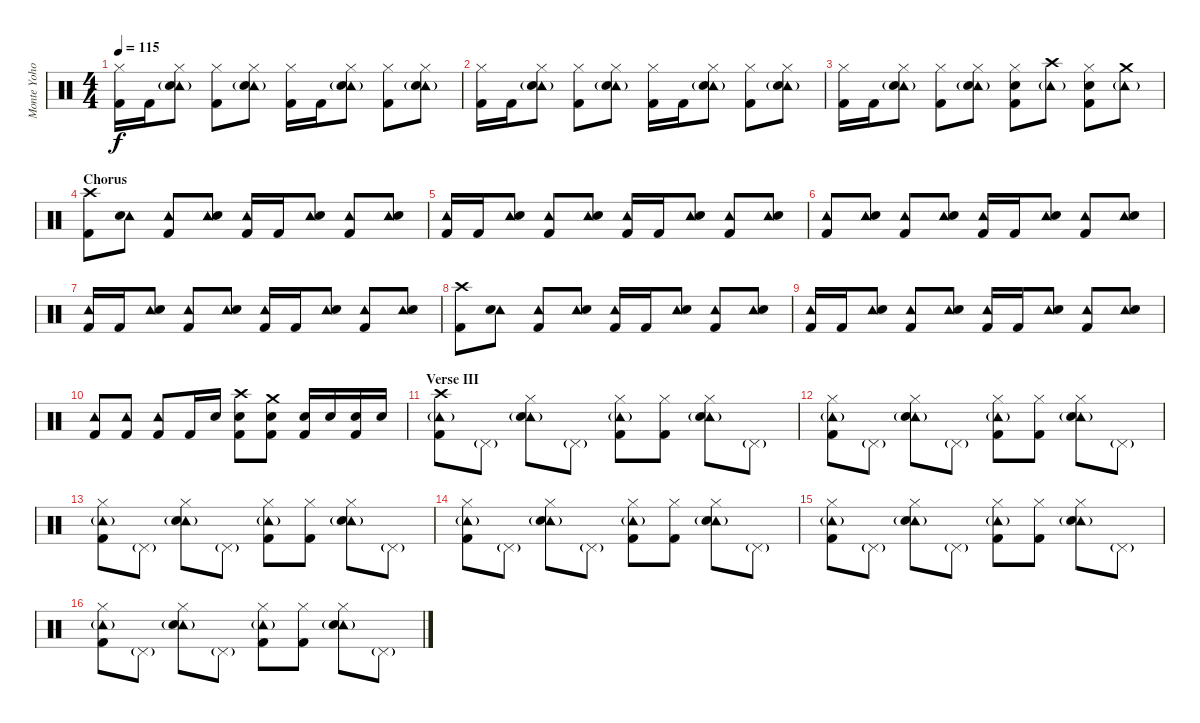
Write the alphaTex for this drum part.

\track ("Monte Yoho - Drums" "Monte Yoho") {instrument percussion}
\staff {score}
\articulation defaults
\ts (4 4)
\tempo 115
\clef neutral
\ks c
("Hi-Hat (closed)" "Kick (hit) 2").16{dy f} "Kick (hit) 2".16 ("Hi-Hat (closed)" "Tambourine (hit)"{g} "Snare (hit) 2").8 ("Hi-Hat (closed)" "Kick (hit) 2").8 ("Hi-Hat (closed)" "Tambourine (hit)"{g} "Snare (hit) 2").8 ("Hi-Hat (closed)" "Kick (hit) 2").16 "Kick (hit) 2".16 ("Hi-Hat (closed)" "Tambourine (hit)"{g} "Snare (hit) 2").8 ("Hi-Hat (closed)" "Kick (hit) 2").8 ("Hi-Hat (closed)" "Tambourine (hit)"{g} "Snare (hit) 2").8 |
("Hi-Hat (closed)" "Kick (hit) 2").16 "Kick (hit) 2".16 ("Hi-Hat (closed)" "Tambourine (hit)"{g} "Snare (hit) 2").8 ("Hi-Hat (closed)" "Kick (hit) 2").8 ("Hi-Hat (closed)" "Tambourine (hit)"{g} "Snare (hit) 2").8 ("Hi-Hat (closed)" "Kick (hit) 2").16 "Kick (hit) 2".16 ("Hi-Hat (closed)" "Tambourine (hit)"{g} "Snare (hit) 2").8 ("Hi-Hat (closed)" "Kick (hit) 2").8 ("Hi-Hat (closed)" "Tambourine (hit)"{g} "Snare (hit) 2").8 |
("Hi-Hat (closed)" "Kick (hit) 2").16 "Kick (hit) 2".16 ("Hi-Hat (closed)" "Tambourine (hit)"{g} "Snare (hit) 2").8 ("Hi-Hat (closed)" "Kick (hit) 2").8 ("Hi-Hat (closed)" "Tambourine (hit)"{g} "Snare (hit) 2").8 ("Hi-Hat (closed)" "Snare (hit) 2" "Kick (hit) 2").8 ("Crash high (hit)" "Tambourine (hit)"{g}).8 ("Hi-Hat (closed)" "Snare (hit) 2" "Kick (hit) 2").8 ("Crash medium (hit)" "Tambourine (hit)"{g}).8 |
\section ("" "Chorus")
("Crash high (hit)" "Kick (hit) 2").8 ("Tambourine (hit)" "Snare (hit) 2").8 ("Tambourine (hit)" "Kick (hit) 2").8 ("Tambourine (hit)" "Snare (hit) 2").8 ("Tambourine (hit)" "Kick (hit) 2").16 "Kick (hit) 2".16 ("Tambourine (hit)" "Snare (hit) 2").8 ("Tambourine (hit)" "Kick (hit) 2").8 ("Tambourine (hit)" "Snare (hit) 2").8 |
("Tambourine (hit)" "Kick (hit) 2").16 "Kick (hit) 2".16 ("Tambourine (hit)" "Snare (hit) 2").8 ("Tambourine (hit)" "Kick (hit) 2").8 ("Tambourine (hit)" "Snare (hit) 2").8 ("Tambourine (hit)" "Kick (hit) 2").16 "Kick (hit) 2".16 ("Tambourine (hit)" "Snare (hit) 2").8 ("Tambourine (hit)" "Kick (hit) 2").8 ("Tambourine (hit)" "Snare (hit) 2").8 |
("Tambourine (hit)" "Kick (hit) 2").8 ("Tambourine (hit)" "Snare (hit) 2").8 ("Tambourine (hit)" "Kick (hit) 2").8 ("Tambourine (hit)" "Snare (hit) 2").8 ("Tambourine (hit)" "Kick (hit) 2").16 "Kick (hit) 2".16 ("Tambourine (hit)" "Snare (hit) 2").8 ("Tambourine (hit)" "Kick (hit) 2").8 ("Tambourine (hit)" "Snare (hit) 2").8 |
("Tambourine (hit)" "Kick (hit) 2").16 "Kick (hit) 2".16 ("Tambourine (hit)" "Snare (hit) 2").8 ("Tambourine (hit)" "Kick (hit) 2").8 ("Tambourine (hit)" "Snare (hit) 2").8 ("Tambourine (hit)" "Kick (hit) 2").16 "Kick (hit) 2".16 ("Tambourine (hit)" "Snare (hit) 2").8 ("Tambourine (hit)" "Kick (hit) 2").8 ("Tambourine (hit)" "Snare (hit) 2").8 |
("Crash high (hit)" "Kick (hit) 2").8 ("Tambourine (hit)" "Snare (hit) 2").8 ("Tambourine (hit)" "Kick (hit) 2").8 ("Tambourine (hit)" "Snare (hit) 2").8 ("Tambourine (hit)" "Kick (hit) 2").16 "Kick (hit) 2".16 ("Tambourine (hit)" "Snare (hit) 2").8 ("Tambourine (hit)" "Kick (hit) 2").8 ("Tambourine (hit)" "Snare (hit) 2").8 |
("Tambourine (hit)" "Kick (hit) 2").16 "Kick (hit) 2".16 ("Tambourine (hit)" "Snare (hit) 2").8 ("Tambourine (hit)" "Kick (hit) 2").8 ("Tambourine (hit)" "Snare (hit) 2").8 ("Tambourine (hit)" "Kick (hit) 2").16 "Kick (hit) 2".16 ("Tambourine (hit)" "Snare (hit) 2").8 ("Tambourine (hit)" "Kick (hit) 2").8 ("Tambourine (hit)" "Snare (hit) 2").8 |
("Tambourine (hit)" "Kick (hit) 2").8 ("Tambourine (hit)" "Kick (hit) 2").8 ("Tambourine (hit)" "Kick (hit) 2").8 "Kick (hit) 2".16 "Snare (hit) 2".16 ("Crash high (hit)" "Snare (hit) 2" "Kick (hit) 2").8 ("Crash medium (hit)" "Snare (hit) 2" "Kick (hit) 2").8 ("Snare (hit) 2" "Kick (hit) 2").16 "Snare (hit) 2".16 ("Snare (hit) 2" "Kick (hit) 2").16 "Snare (hit) 2".16 |
\section ("" "Verse III")
("Crash high (hit)" "Tambourine (hit)"{g} "Kick (hit) 2").8 "Pedal Hi-Hat (hit)"{g}.8 ("Hi-Hat (closed)" "Tambourine (hit)"{g} "Snare (hit) 2").8 "Pedal Hi-Hat (hit)"{g}.8 ("Hi-Hat (closed)" "Tambourine (hit)"{g} "Kick (hit) 2").8 ("Hi-Hat (closed)" "Kick (hit) 2").8 ("Hi-Hat (closed)" "Tambourine (hit)"{g} "Snare (hit) 2").8 "Pedal Hi-Hat (hit)"{g}.8 |
("Hi-Hat (closed)" "Tambourine (hit)"{g} "Kick (hit) 2").8 "Pedal Hi-Hat (hit)"{g}.8 ("Hi-Hat (closed)" "Tambourine (hit)"{g} "Snare (hit) 2").8 "Pedal Hi-Hat (hit)"{g}.8 ("Hi-Hat (closed)" "Tambourine (hit)"{g} "Kick (hit) 2").8 ("Hi-Hat (closed)" "Kick (hit) 2").8 ("Hi-Hat (closed)" "Tambourine (hit)"{g} "Snare (hit) 2").8 "Pedal Hi-Hat (hit)"{g}.8 |
("Hi-Hat (closed)" "Tambourine (hit)"{g} "Kick (hit) 2").8 "Pedal Hi-Hat (hit)"{g}.8 ("Hi-Hat (closed)" "Tambourine (hit)"{g} "Snare (hit) 2").8 "Pedal Hi-Hat (hit)"{g}.8 ("Hi-Hat (closed)" "Tambourine (hit)"{g} "Kick (hit) 2").8 ("Hi-Hat (closed)" "Kick (hit) 2").8 ("Hi-Hat (closed)" "Tambourine (hit)"{g} "Snare (hit) 2").8 "Pedal Hi-Hat (hit)"{g}.8 |
("Hi-Hat (closed)" "Tambourine (hit)"{g} "Kick (hit) 2").8 "Pedal Hi-Hat (hit)"{g}.8 ("Hi-Hat (closed)" "Tambourine (hit)"{g} "Snare (hit) 2").8 "Pedal Hi-Hat (hit)"{g}.8 ("Hi-Hat (closed)" "Tambourine (hit)"{g} "Kick (hit) 2").8 ("Hi-Hat (closed)" "Kick (hit) 2").8 ("Hi-Hat (closed)" "Tambourine (hit)"{g} "Snare (hit) 2").8 "Pedal Hi-Hat (hit)"{g}.8 |
("Hi-Hat (closed)" "Tambourine (hit)"{g} "Kick (hit) 2").8 "Pedal Hi-Hat (hit)"{g}.8 ("Hi-Hat (closed)" "Tambourine (hit)"{g} "Snare (hit) 2").8 "Pedal Hi-Hat (hit)"{g}.8 ("Hi-Hat (closed)" "Tambourine (hit)"{g} "Kick (hit) 2").8 ("Hi-Hat (closed)" "Kick (hit) 2").8 ("Hi-Hat (closed)" "Tambourine (hit)"{g} "Snare (hit) 2").8 "Pedal Hi-Hat (hit)"{g}.8 |
("Hi-Hat (closed)" "Tambourine (hit)"{g} "Kick (hit) 2").8 "Pedal Hi-Hat (hit)"{g}.8 ("Hi-Hat (closed)" "Tambourine (hit)"{g} "Snare (hit) 2").8 "Pedal Hi-Hat (hit)"{g}.8 ("Hi-Hat (closed)" "Tambourine (hit)"{g} "Kick (hit) 2").8 ("Hi-Hat (closed)" "Kick (hit) 2").8 ("Hi-Hat (closed)" "Tambourine (hit)"{g} "Snare (hit) 2").8 "Pedal Hi-Hat (hit)"{g}.8
